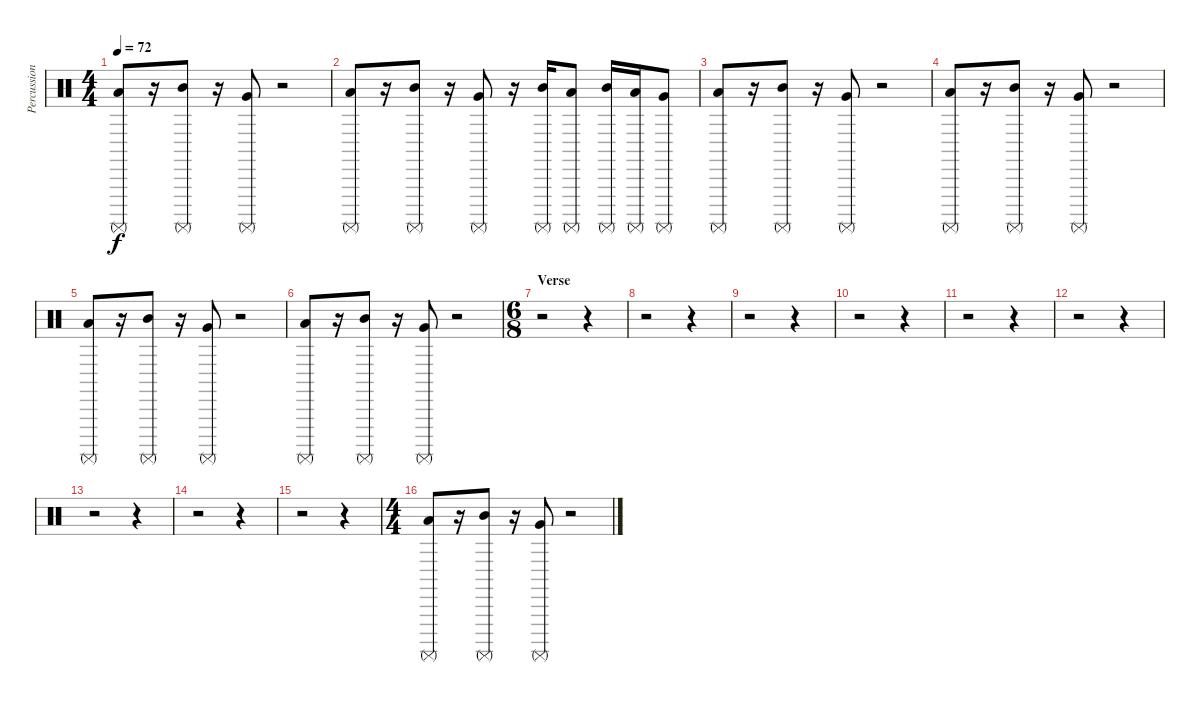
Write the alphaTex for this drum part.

\track ("Percussion" "Percussion") {instrument percussion}
\staff {score}
\articulation defaults
\ts (4 4)
\tempo 72
\clef neutral
\ks c
("Low Tom (hit)" "Surdo (mute)").8{dy f} r.16 ("Mid Tom (hit)" "Surdo (mute)").8 r.16 ("Very Low Tom (hit)" "Surdo (mute)").8 r.2 |
("Low Tom (hit)" "Surdo (mute)").8 r.16 ("Mid Tom (hit)" "Surdo (mute)").8 r.16 ("Very Low Tom (hit)" "Surdo (mute)").8 r.16 ("Mid Tom (hit)" "Surdo (mute)").16 ("Low Tom (hit)" "Surdo (mute)").8 ("Mid Tom (hit)" "Surdo (mute)").16 ("Low Tom (hit)" "Surdo (mute)").16 ("Very Low Tom (hit)" "Surdo (mute)").8 |
("Low Tom (hit)" "Surdo (mute)").8 r.16 ("Mid Tom (hit)" "Surdo (mute)").8 r.16 ("Very Low Tom (hit)" "Surdo (mute)").8 r.2 |
("Low Tom (hit)" "Surdo (mute)").8 r.16 ("Mid Tom (hit)" "Surdo (mute)").8 r.16 ("Very Low Tom (hit)" "Surdo (mute)").8 r.2 |
("Low Tom (hit)" "Surdo (mute)").8 r.16 ("Mid Tom (hit)" "Surdo (mute)").8 r.16 ("Very Low Tom (hit)" "Surdo (mute)").8 r.2 |
("Low Tom (hit)" "Surdo (mute)").8 r.16 ("Mid Tom (hit)" "Surdo (mute)").8 r.16 ("Very Low Tom (hit)" "Surdo (mute)").8 r.2 |
\ts (6 8)
\section ("" "Verse")
r.2 r.4 |
r.2 r.4 |
r.2 r.4 |
r.2 r.4 |
r.2 r.4 |
r.2 r.4 |
r.2 r.4 |
r.2 r.4 |
r.2 r.4 |
\ts (4 4)
\section ("" "")
("Low Tom (hit)" "Surdo (mute)").8 r.16 ("Mid Tom (hit)" "Surdo (mute)").8 r.16 ("Very Low Tom (hit)" "Surdo (mute)").8 r.2
